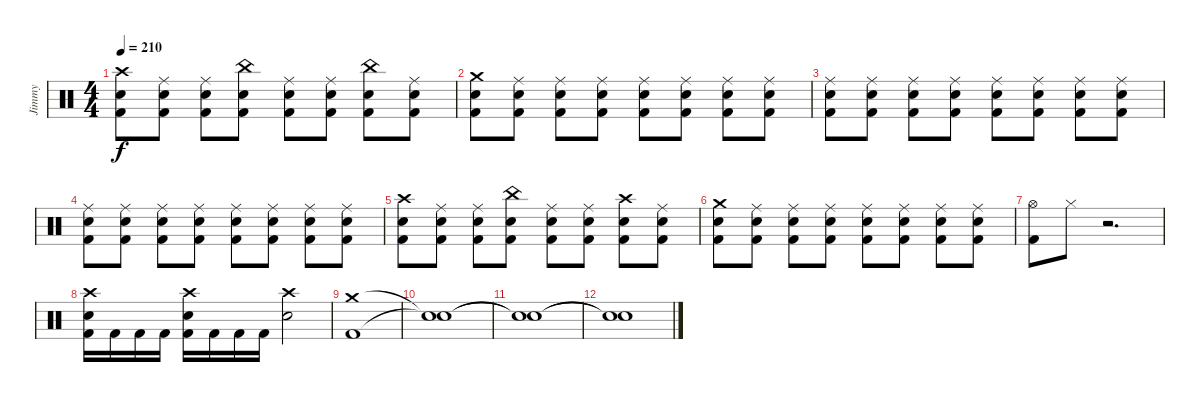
\track ("Jimmy" "Jimmy") {instrument percussion}
\staff {score}
\articulation defaults
\ts (4 4)
\tempo 210
\clef neutral
\ks c
("Crash high (hit)" "Electric Snare (hit)" "Kick (hit) 2").8{dy f} ("Ride (middle)" "Electric Snare (hit)" "Kick (hit) 2").8 ("Ride (middle)" "Electric Snare (hit)" "Kick (hit) 2").8 ("China (hit)" "Electric Snare (hit)" "Kick (hit) 2").8 ("Ride (middle)" "Electric Snare (hit)" "Kick (hit) 2").8 ("Ride (middle)" "Electric Snare (hit)" "Kick (hit) 2").8 ("China (hit)" "Electric Snare (hit)" "Kick (hit) 2").8 ("Ride (middle)" "Electric Snare (hit)" "Kick (hit) 2").8 |
("Crash medium (hit)" "Electric Snare (hit)" "Kick (hit) 2").8 ("Ride (middle)" "Electric Snare (hit)" "Kick (hit) 2").8 ("Ride (middle)" "Electric Snare (hit)" "Kick (hit) 2").8 ("Ride (middle)" "Electric Snare (hit)" "Kick (hit) 2").8 ("Ride (middle)" "Electric Snare (hit)" "Kick (hit) 2").8 ("Ride (middle)" "Electric Snare (hit)" "Kick (hit) 2").8 ("Ride (middle)" "Electric Snare (hit)" "Kick (hit) 2").8 ("Ride (middle)" "Electric Snare (hit)" "Kick (hit) 2").8 |
("Ride (middle)" "Electric Snare (hit)" "Kick (hit) 2").8 ("Ride (middle)" "Electric Snare (hit)" "Kick (hit) 2").8 ("Ride (middle)" "Electric Snare (hit)" "Kick (hit) 2").8 ("Ride (middle)" "Electric Snare (hit)" "Kick (hit) 2").8 ("Ride (middle)" "Electric Snare (hit)" "Kick (hit) 2").8 ("Ride (middle)" "Electric Snare (hit)" "Kick (hit) 2").8 ("Ride (middle)" "Electric Snare (hit)" "Kick (hit) 2").8 ("Ride (middle)" "Electric Snare (hit)" "Kick (hit) 2").8 |
("Ride (middle)" "Electric Snare (hit)" "Kick (hit) 2").8 ("Ride (middle)" "Electric Snare (hit)" "Kick (hit) 2").8 ("Ride (middle)" "Electric Snare (hit)" "Kick (hit) 2").8 ("Ride (middle)" "Electric Snare (hit)" "Kick (hit) 2").8 ("Ride (middle)" "Electric Snare (hit)" "Kick (hit) 2").8 ("Ride (middle)" "Electric Snare (hit)" "Kick (hit) 2").8 ("Ride (middle)" "Electric Snare (hit)" "Kick (hit) 2").8 ("Ride (middle)" "Electric Snare (hit)" "Kick (hit) 2").8 |
("Crash high (hit)" "Electric Snare (hit)" "Kick (hit) 2").8 ("Ride (middle)" "Electric Snare (hit)" "Kick (hit) 2").8 ("Ride (middle)" "Electric Snare (hit)" "Kick (hit) 2").8 ("China (hit)" "Electric Snare (hit)" "Kick (hit) 2").8 ("Ride (middle)" "Electric Snare (hit)" "Kick (hit) 2").8 ("Ride (middle)" "Electric Snare (hit)" "Kick (hit) 2").8 ("Crash high (hit)" "Electric Snare (hit)" "Kick (hit) 2").8 ("Ride (middle)" "Electric Snare (hit)" "Kick (hit) 2").8 |
("Crash medium (hit)" "Electric Snare (hit)" "Kick (hit) 2").8 ("Ride (middle)" "Electric Snare (hit)" "Kick (hit) 2").8 ("Ride (middle)" "Electric Snare (hit)" "Kick (hit) 2").8 ("Ride (middle)" "Electric Snare (hit)" "Kick (hit) 2").8 ("Ride (middle)" "Electric Snare (hit)" "Kick (hit) 2").8 ("Ride (middle)" "Electric Snare (hit)" "Kick (hit) 2").8 ("Ride (middle)" "Electric Snare (hit)" "Kick (hit) 2").8 ("Ride (middle)" "Electric Snare (hit)" "Kick (hit) 2").8 |
("Hi-Hat (open)" "Kick (hit) 2").8 "Hi-Hat (closed)".8 r.2{d} |
("Crash high (hit)" "Electric Snare (hit)" "Kick (hit) 2").16 "Kick (hit) 2".16 "Kick (hit) 2".16 "Kick (hit) 2".16 ("Crash high (hit)" "Electric Snare (hit)" "Kick (hit) 2").16 "Kick (hit) 2".16 "Kick (hit) 2".16 "Kick (hit) 2".16 ("Crash high (hit)" "Electric Snare (hit)").2 |
("Crash medium (hit)" "Kick (hit) 2").1 |
("Snare (hit)"{t} "Snare (hit)"{t}).1 |
("Snare (hit)"{t} "Snare (hit)"{t}).1 |
("Snare (hit)"{t} "Snare (hit)"{t}).1
